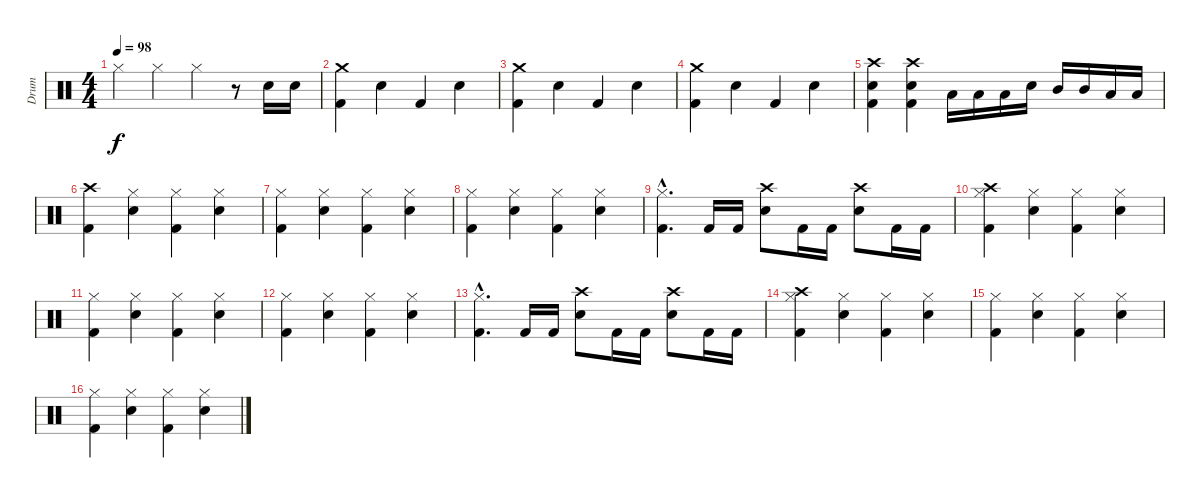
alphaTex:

\track ("Drum" "Drum") {instrument percussion}
\staff {score}
\articulation defaults
\ts (4 4)
\tempo 98
\clef neutral
\ks c "Hi-Hat (closed)".4{dy f} "Hi-Hat (closed)".4 "Hi-Hat (closed)".4
r.8 "Snare (hit) 2".16 "Snare (hit) 2".16 |
("Crash medium (hit)" "Kick (hit) 2").4 "Snare (hit) 2".4 "Kick (hit) 2".4 "Snare (hit) 2".4 |
("Crash medium (hit)" "Kick (hit) 2").4 "Snare (hit) 2".4 "Kick (hit) 2".4 "Snare (hit) 2".4 |
("Crash medium (hit)" "Kick (hit) 2").4 "Snare (hit) 2".4 "Kick (hit) 2".4 "Snare (hit) 2".4 |
("Crash high (hit)" "Snare (hit) 2" "Kick (hit) 2").4 ("Crash high (hit)" "Snare (hit) 2" "Kick (hit) 2").4 "Low Tom (hit)".16 "Low Floor Tom (hit)".16 "Low Tom (hit)".16 "Snare (hit) 2".16 "Mid Tom (hit)".16 "Mid Tom (hit)".16 "Low Tom (hit)".16 "Low Floor Tom (hit)".16 |
("Crash high (hit)" "Kick (hit) 2").4 ("Hi-Hat (closed)" "Snare (hit) 2").4 ("Hi-Hat (closed)" "Kick (hit) 2").4 ("Hi-Hat (closed)" "Snare (hit) 2").4 |
("Hi-Hat (closed)" "Kick (hit) 2").4 ("Hi-Hat (closed)" "Snare (hit) 2").4 ("Hi-Hat (closed)" "Kick (hit) 2").4 ("Hi-Hat (closed)" "Snare (hit) 2").4 |
("Hi-Hat (closed)" "Kick (hit) 2").4 ("Hi-Hat (closed)" "Snare (hit) 2").4 ("Hi-Hat (closed)" "Kick (hit) 2").4 ("Hi-Hat (closed)" "Snare (hit) 2").4 |
("Hi-Hat (closed)"{hac} "Kick (hit) 2"{hac}).4{d} "Kick (hit) 2".16 "Kick (hit) 2".16 ("Crash high (hit)" "Snare (hit) 2").8 "Kick (hit) 2".16 "Kick (hit) 2".16 ("Crash high (hit)" "Snare (hit) 2").8 "Kick (hit) 2".16 "Kick (hit) 2".16 |
("Crash high (hit)" "Hi-Hat (closed)" "Kick (hit) 2").4 ("Hi-Hat (closed)" "Snare (hit) 2").4 ("Hi-Hat (closed)" "Kick (hit) 2").4 ("Hi-Hat (closed)" "Snare (hit) 2").4 |
("Hi-Hat (closed)" "Kick (hit) 2").4 ("Hi-Hat (closed)" "Snare (hit) 2").4 ("Hi-Hat (closed)" "Kick (hit) 2").4 ("Hi-Hat (closed)" "Snare (hit) 2").4 |
("Hi-Hat (closed)" "Kick (hit) 2").4 ("Hi-Hat (closed)" "Snare (hit) 2").4 ("Hi-Hat (closed)" "Kick (hit) 2").4 ("Hi-Hat (closed)" "Snare (hit) 2").4 |
("Hi-Hat (closed)"{hac} "Kick (hit) 2"{hac}).4{d} "Kick (hit) 2".16 "Kick (hit) 2".16 ("Crash high (hit)" "Snare (hit) 2").8 "Kick (hit) 2".16 "Kick (hit) 2".16 ("Crash high (hit)" "Snare (hit) 2").8 "Kick (hit) 2".16 "Kick (hit) 2".16 |
("Crash high (hit)" "Hi-Hat (closed)" "Kick (hit) 2").4 ("Hi-Hat (closed)" "Snare (hit) 2").4 ("Hi-Hat (closed)" "Kick (hit) 2").4 ("Hi-Hat (closed)" "Snare (hit) 2").4 |
("Hi-Hat (closed)" "Kick (hit) 2").4 ("Hi-Hat (closed)" "Snare (hit) 2").4 ("Hi-Hat (closed)" "Kick (hit) 2").4 ("Hi-Hat (closed)" "Snare (hit) 2").4 |
("Hi-Hat (closed)" "Kick (hit) 2").4 ("Hi-Hat (closed)" "Snare (hit) 2").4 ("Hi-Hat (closed)" "Kick (hit) 2").4 ("Hi-Hat (closed)" "Snare (hit) 2").4
